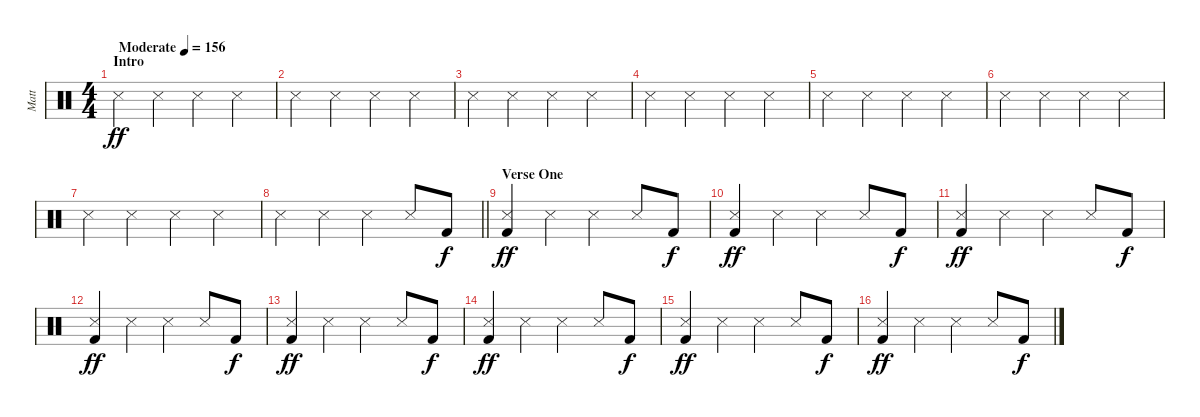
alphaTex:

\track ("Matt" "Matt") {instrument percussion}
\staff {score}
\articulation defaults
\ts (4 4)
\section ("" "Intro")
\tempo (156 "Moderate")
\clef neutral
\ks c "Snare (side stick) 3".4{dy ff} "Snare (side stick) 3".4 "Snare (side stick) 3".4 "Snare (side stick) 3".4
|
"Snare (side stick) 3".4 "Snare (side stick) 3".4 "Snare (side stick) 3".4 "Snare (side stick) 3".4 |
"Snare (side stick) 3".4 "Snare (side stick) 3".4 "Snare (side stick) 3".4 "Snare (side stick) 3".4 |
"Snare (side stick) 3".4 "Snare (side stick) 3".4 "Snare (side stick) 3".4 "Snare (side stick) 3".4 |
"Snare (side stick) 3".4 "Snare (side stick) 3".4 "Snare (side stick) 3".4 "Snare (side stick) 3".4 |
"Snare (side stick) 3".4 "Snare (side stick) 3".4 "Snare (side stick) 3".4 "Snare (side stick) 3".4 |
"Snare (side stick) 3".4 "Snare (side stick) 3".4 "Snare (side stick) 3".4 "Snare (side stick) 3".4 |
\barLineRight lightlight "Snare (side stick) 3".4 "Snare (side stick) 3".4 "Snare (side stick) 3".4 "Snare (side stick) 3".8 "Kick (hit) 2".8{dy f}
|
\section ("" "Verse One")
("Snare (side stick) 3" "Kick (hit) 2").4{dy ff} "Snare (side stick) 3".4 "Snare (side stick) 3".4 "Snare (side stick) 3".8 "Kick (hit) 2".8{dy f} |
("Snare (side stick) 3" "Kick (hit) 2").4{dy ff} "Snare (side stick) 3".4 "Snare (side stick) 3".4 "Snare (side stick) 3".8 "Kick (hit) 2".8{dy f} |
("Snare (side stick) 3" "Kick (hit) 2").4{dy ff} "Snare (side stick) 3".4 "Snare (side stick) 3".4 "Snare (side stick) 3".8 "Kick (hit) 2".8{dy f} |
("Snare (side stick) 3" "Kick (hit) 2").4{dy ff} "Snare (side stick) 3".4 "Snare (side stick) 3".4 "Snare (side stick) 3".8 "Kick (hit) 2".8{dy f} |
("Snare (side stick) 3" "Kick (hit) 2").4{dy ff} "Snare (side stick) 3".4 "Snare (side stick) 3".4 "Snare (side stick) 3".8 "Kick (hit) 2".8{dy f} |
("Snare (side stick) 3" "Kick (hit) 2").4{dy ff} "Snare (side stick) 3".4 "Snare (side stick) 3".4 "Snare (side stick) 3".8 "Kick (hit) 2".8{dy f} |
("Snare (side stick) 3" "Kick (hit) 2").4{dy ff} "Snare (side stick) 3".4 "Snare (side stick) 3".4 "Snare (side stick) 3".8 "Kick (hit) 2".8{dy f} |
("Snare (side stick) 3" "Kick (hit) 2").4{dy ff} "Snare (side stick) 3".4 "Snare (side stick) 3".4 "Snare (side stick) 3".8 "Kick (hit) 2".8{dy f}
